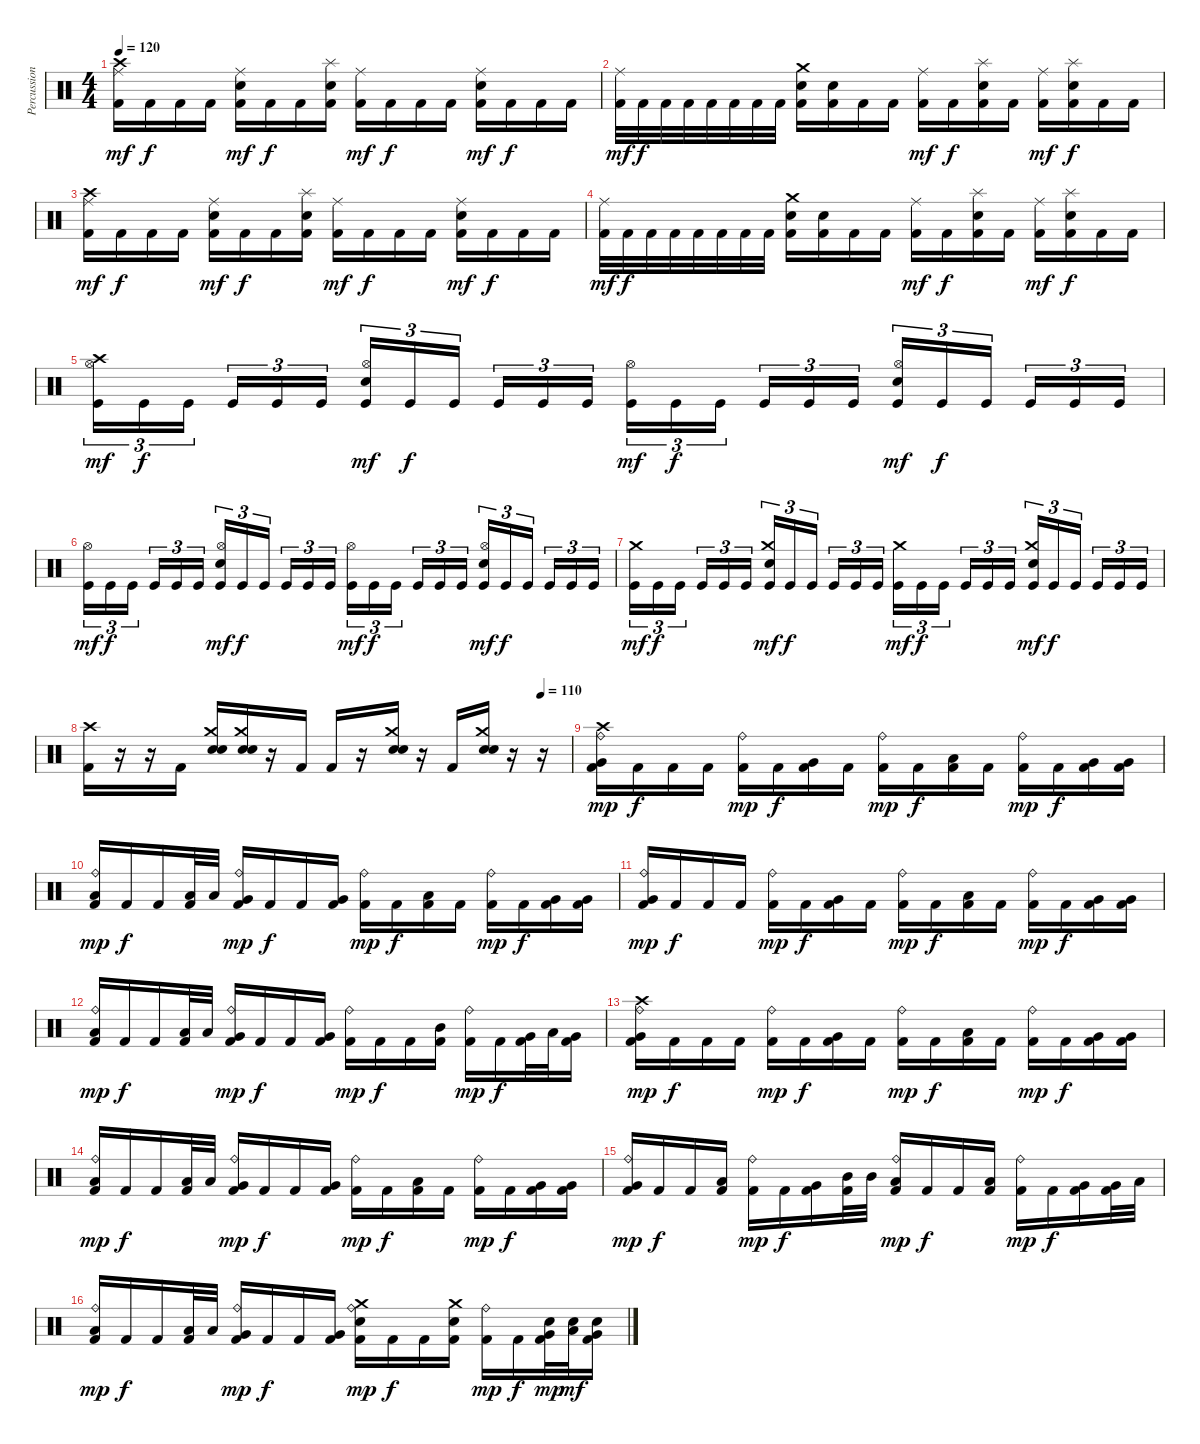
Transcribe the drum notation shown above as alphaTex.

\track ("Percussion" "Percussion") {instrument percussion}
\staff {score}
\articulation defaults
\ts (4 4)
\tempo 120
\clef neutral
\ks c
("Ride (middle)" "Crash high (hit)" "Kick (hit) 2").16{dy mf} "Kick (hit) 2".16{dy f} "Kick (hit) 2".16 "Kick (hit) 2".16 ("Ride (middle)" "Electric Snare (hit)" "Kick (hit) 2").16{dy mf} "Kick (hit) 2".16{dy f} "Kick (hit) 2".16 ("Splash (hit)" "Electric Snare (hit)" "Kick (hit) 2").16 ("Ride (middle)" "Kick (hit) 2").16{dy mf} "Kick (hit) 2".16{dy f} "Kick (hit) 2".16 "Kick (hit) 2".16 ("Ride (middle)" "Electric Snare (hit)" "Kick (hit) 2").16{dy mf} "Kick (hit) 2".16{dy f} "Kick (hit) 2".16 "Kick (hit) 2".16 |
("Ride (middle)" "Kick (hit) 2").32{dy mf} "Kick (hit) 2".32{dy f} "Kick (hit) 2".32 "Kick (hit) 2".32 "Kick (hit) 2".32 "Kick (hit) 2".32 "Kick (hit) 2".32 "Kick (hit) 2".32 ("Crash medium (hit)" "Electric Snare (hit)" "Kick (hit) 2").16 ("Electric Snare (hit)" "Kick (hit) 2").16 "Kick (hit) 2".16 "Kick (hit) 2".16 ("Ride (middle)" "Kick (hit) 2").16{dy mf} "Kick (hit) 2".16{dy f} ("Splash (hit)" "Electric Snare (hit)" "Kick (hit) 2").16 "Kick (hit) 2".16 ("Ride (middle)" "Kick (hit) 2").16{dy mf} ("Splash (hit)" "Electric Snare (hit)" "Kick (hit) 2").16{dy f} "Kick (hit) 2".16 "Kick (hit) 2".16 |
("Ride (middle)" "Crash high (hit)" "Kick (hit) 2").16{dy mf} "Kick (hit) 2".16{dy f} "Kick (hit) 2".16 "Kick (hit) 2".16 ("Ride (middle)" "Electric Snare (hit)" "Kick (hit) 2").16{dy mf} "Kick (hit) 2".16{dy f} "Kick (hit) 2".16 ("Splash (hit)" "Electric Snare (hit)" "Kick (hit) 2").16 ("Ride (middle)" "Kick (hit) 2").16{dy mf} "Kick (hit) 2".16{dy f} "Kick (hit) 2".16 "Kick (hit) 2".16 ("Ride (middle)" "Electric Snare (hit)" "Kick (hit) 2").16{dy mf} "Kick (hit) 2".16{dy f} "Kick (hit) 2".16 "Kick (hit) 2".16 |
("Ride (middle)" "Kick (hit) 2").32{dy mf} "Kick (hit) 2".32{dy f} "Kick (hit) 2".32 "Kick (hit) 2".32 "Kick (hit) 2".32 "Kick (hit) 2".32 "Kick (hit) 2".32 "Kick (hit) 2".32 ("Crash medium (hit)" "Electric Snare (hit)" "Kick (hit) 2").16 ("Electric Snare (hit)" "Kick (hit) 2").16 "Kick (hit) 2".16 "Kick (hit) 2".16 ("Ride (middle)" "Kick (hit) 2").16{dy mf} "Kick (hit) 2".16{dy f} ("Splash (hit)" "Electric Snare (hit)" "Kick (hit) 2").16 "Kick (hit) 2".16 ("Ride (middle)" "Kick (hit) 2").16{dy mf} ("Splash (hit)" "Electric Snare (hit)" "Kick (hit) 2").16{dy f} "Kick (hit) 2".16 "Kick (hit) 2".16 |
("Hi-Hat (open)" "Crash high (hit)" "Kick (hit)").16{tu (3 2) dy mf} "Kick (hit)".16{tu (3 2) dy f} "Kick (hit)".16{tu (3 2)} "Kick (hit)".16{tu (3 2)} "Kick (hit)".16{tu (3 2)} "Kick (hit)".16{tu (3 2)} ("Hi-Hat (open)" "Electric Snare (hit)" "Kick (hit)").16{tu (3 2) dy mf} "Kick (hit)".16{tu (3 2) dy f} "Kick (hit)".16{tu (3 2)} "Kick (hit)".16{tu (3 2)} "Kick (hit)".16{tu (3 2)} "Kick (hit)".16{tu (3 2)} ("Hi-Hat (open)" "Kick (hit)").16{tu (3 2) dy mf} "Kick (hit)".16{tu (3 2) dy f} "Kick (hit)".16{tu (3 2)} "Kick (hit)".16{tu (3 2)} "Kick (hit)".16{tu (3 2)} "Kick (hit)".16{tu (3 2)} ("Hi-Hat (open)" "Electric Snare (hit)" "Kick (hit)").16{tu (3 2) dy mf} "Kick (hit)".16{tu (3 2) dy f} "Kick (hit)".16{tu (3 2)} "Kick (hit)".16{tu (3 2)} "Kick (hit)".16{tu (3 2)} "Kick (hit)".16{tu (3 2)} |
("Hi-Hat (open)" "Kick (hit)").16{tu (3 2) dy mf} "Kick (hit)".16{tu (3 2) dy f} "Kick (hit)".16{tu (3 2)} "Kick (hit)".16{tu (3 2)} "Kick (hit)".16{tu (3 2)} "Kick (hit)".16{tu (3 2)} ("Hi-Hat (open)" "Electric Snare (hit)" "Kick (hit)").16{tu (3 2) dy mf} "Kick (hit)".16{tu (3 2) dy f} "Kick (hit)".16{tu (3 2)} "Kick (hit)".16{tu (3 2)} "Kick (hit)".16{tu (3 2)} "Kick (hit)".16{tu (3 2)} ("Hi-Hat (open)" "Kick (hit)").16{tu (3 2) dy mf} "Kick (hit)".16{tu (3 2) dy f} "Kick (hit)".16{tu (3 2)} "Kick (hit)".16{tu (3 2)} "Kick (hit)".16{tu (3 2)} "Kick (hit)".16{tu (3 2)} ("Hi-Hat (open)" "Electric Snare (hit)" "Kick (hit)").16{tu (3 2) dy mf} "Kick (hit)".16{tu (3 2) dy f} "Kick (hit)".16{tu (3 2)} "Kick (hit)".16{tu (3 2)} "Kick (hit)".16{tu (3 2)} "Kick (hit)".16{tu (3 2)} |
("Crash medium (hit)" "Kick (hit)").16{tu (3 2) dy mf} "Kick (hit)".16{tu (3 2) dy f} "Kick (hit)".16{tu (3 2)} "Kick (hit)".16{tu (3 2)} "Kick (hit)".16{tu (3 2)} "Kick (hit)".16{tu (3 2)} ("Crash medium (hit)" "Electric Snare (hit)" "Kick (hit)").16{tu (3 2) dy mf} "Kick (hit)".16{tu (3 2) dy f} "Kick (hit)".16{tu (3 2)} "Kick (hit)".16{tu (3 2)} "Kick (hit)".16{tu (3 2)} "Kick (hit)".16{tu (3 2)} ("Crash medium (hit)" "Kick (hit)").16{tu (3 2) dy mf} "Kick (hit)".16{tu (3 2) dy f} "Kick (hit)".16{tu (3 2)} "Kick (hit)".16{tu (3 2)} "Kick (hit)".16{tu (3 2)} "Kick (hit)".16{tu (3 2)} ("Crash medium (hit)" "Electric Snare (hit)" "Kick (hit)").16{tu (3 2) dy mf} "Kick (hit)".16{tu (3 2) dy f} "Kick (hit)".16{tu (3 2)} "Kick (hit)".16{tu (3 2)} "Kick (hit)".16{tu (3 2)} "Kick (hit)".16{tu (3 2)} |
\tempo (110 0.9375)
("Crash high (hit)" "Kick (hit) 2").16 r.16 r.16 "Kick (hit) 2".16 ("Crash medium (hit)" "Snare (hit) 2" "Electric Snare (hit)").16 ("Crash medium (hit)" "Snare (hit) 2" "Electric Snare (hit)").16 r.16 "Kick (hit) 2".16 "Kick (hit) 2".16 r.16 ("Crash medium (hit)" "Snare (hit) 2" "Electric Snare (hit)").16 r.16 "Kick (hit) 2".16 ("Crash medium (hit)" "Snare (hit) 2" "Electric Snare (hit)").16 r.16 r.16 |
("Ride (bell)" "Crash high (hit)" "Very Low Tom (hit)" "Kick (hit) 2").16{dy mp} "Kick (hit) 2".16{dy f} "Kick (hit) 2".16 "Kick (hit) 2".16 ("Ride (bell)" "Kick (hit) 2").16{dy mp} "Kick (hit) 2".16{dy f} ("Very Low Tom (hit)" "Kick (hit) 2").16 "Kick (hit) 2".16 ("Ride (bell)" "Kick (hit) 2").16{dy mp} "Kick (hit) 2".16{dy f} ("Low Tom (hit)" "Kick (hit) 2").16 "Kick (hit) 2".16 ("Ride (bell)" "Kick (hit) 2").16{dy mp} "Kick (hit) 2".16{dy f} ("Very Low Tom (hit)" "Kick (hit) 2").16 ("Very Low Tom (hit)" "Kick (hit) 2").16 |
("Ride (bell)" "Low Floor Tom (hit)" "Kick (hit) 2").16{dy mp} "Kick (hit) 2".16{dy f} "Kick (hit) 2".16 ("Low Tom (hit)" "Kick (hit) 2").32 "Low Tom (hit)".32 ("Ride (bell)" "Very Low Tom (hit)" "Kick (hit) 2").16{dy mp} "Kick (hit) 2".16{dy f} "Kick (hit) 2".16 ("Very Low Tom (hit)" "Kick (hit) 2").16 ("Ride (bell)" "Kick (hit) 2").16{dy mp} "Kick (hit) 2".16{dy f} ("Low Tom (hit)" "Kick (hit) 2").16 "Kick (hit) 2".16 ("Ride (bell)" "Kick (hit) 2").16{dy mp} "Kick (hit) 2".16{dy f} ("Very Low Tom (hit)" "Kick (hit) 2").16 ("Very Low Tom (hit)" "Kick (hit) 2").16 |
("Ride (bell)" "Very Low Tom (hit)" "Kick (hit) 2").16{dy mp} "Kick (hit) 2".16{dy f} "Kick (hit) 2".16 "Kick (hit) 2".16 ("Ride (bell)" "Kick (hit) 2").16{dy mp} "Kick (hit) 2".16{dy f} ("Very Low Tom (hit)" "Kick (hit) 2").16 "Kick (hit) 2".16 ("Ride (bell)" "Kick (hit) 2").16{dy mp} "Kick (hit) 2".16{dy f} ("Low Tom (hit)" "Kick (hit) 2").16 "Kick (hit) 2".16 ("Ride (bell)" "Kick (hit) 2").16{dy mp} "Kick (hit) 2".16{dy f} ("Very Low Tom (hit)" "Kick (hit) 2").16 ("Very Low Tom (hit)" "Kick (hit) 2").16 |
("Ride (bell)" "Low Floor Tom (hit)" "Kick (hit) 2").16{dy mp} "Kick (hit) 2".16{dy f} "Kick (hit) 2".16 ("Low Tom (hit)" "Kick (hit) 2").32 "Low Tom (hit)".32 ("Ride (bell)" "Very Low Tom (hit)" "Kick (hit) 2").16{dy mp} "Kick (hit) 2".16{dy f} "Kick (hit) 2".16 ("Very Low Tom (hit)" "Kick (hit) 2").16 ("Ride (bell)" "Kick (hit) 2").16{dy mp} "Kick (hit) 2".16{dy f} "Kick (hit) 2".16 ("Mid Tom (hit)" "Kick (hit) 2").16 ("Ride (bell)" "Kick (hit) 2").16{dy mp} "Kick (hit) 2".16{dy f} ("Very Low Tom (hit)" "Kick (hit) 2").32 "Low Floor Tom (hit)".32 ("Very Low Tom (hit)" "Kick (hit) 2").16 |
("Ride (bell)" "Crash high (hit)" "Very Low Tom (hit)" "Kick (hit) 2").16{dy mp} "Kick (hit) 2".16{dy f} "Kick (hit) 2".16 "Kick (hit) 2".16 ("Ride (bell)" "Kick (hit) 2").16{dy mp} "Kick (hit) 2".16{dy f} ("Very Low Tom (hit)" "Kick (hit) 2").16 "Kick (hit) 2".16 ("Ride (bell)" "Kick (hit) 2").16{dy mp} "Kick (hit) 2".16{dy f} ("Low Tom (hit)" "Kick (hit) 2").16 "Kick (hit) 2".16 ("Ride (bell)" "Kick (hit) 2").16{dy mp} "Kick (hit) 2".16{dy f} ("Very Low Tom (hit)" "Kick (hit) 2").16 ("Very Low Tom (hit)" "Kick (hit) 2").16 |
("Ride (bell)" "Low Floor Tom (hit)" "Kick (hit) 2").16{dy mp} "Kick (hit) 2".16{dy f} "Kick (hit) 2".16 ("Low Tom (hit)" "Kick (hit) 2").32 "Low Tom (hit)".32 ("Ride (bell)" "Very Low Tom (hit)" "Kick (hit) 2").16{dy mp} "Kick (hit) 2".16{dy f} "Kick (hit) 2".16 ("Very Low Tom (hit)" "Kick (hit) 2").16 ("Ride (bell)" "Kick (hit) 2").16{dy mp} "Kick (hit) 2".16{dy f} ("Low Tom (hit)" "Kick (hit) 2").16 "Kick (hit) 2".16 ("Ride (bell)" "Kick (hit) 2").16{dy mp} "Kick (hit) 2".16{dy f} ("Very Low Tom (hit)" "Kick (hit) 2").16 ("Very Low Tom (hit)" "Kick (hit) 2").16 |
("Ride (bell)" "Very Low Tom (hit)" "Kick (hit) 2").16{dy mp} "Kick (hit) 2".16{dy f} "Kick (hit) 2".16 ("Low Tom (hit)" "Kick (hit) 2").16 ("Ride (bell)" "Kick (hit) 2").16{dy mp} "Kick (hit) 2".16{dy f} ("Very Low Tom (hit)" "Kick (hit) 2").16 ("Mid Tom (hit)" "Kick (hit) 2").32 "Mid Tom (hit)".32 ("Ride (bell)" "Low Tom (hit)" "Kick (hit) 2").16{dy mp} "Kick (hit) 2".16{dy f} "Kick (hit) 2".16 ("Low Floor Tom (hit)" "Kick (hit) 2").16 ("Ride (bell)" "Kick (hit) 2").16{dy mp} "Kick (hit) 2".16{dy f} ("Very Low Tom (hit)" "Kick (hit) 2").16 ("Very Low Tom (hit)" "Kick (hit) 2").32 "Low Tom (hit)".32 |
("Ride (bell)" "Low Floor Tom (hit)" "Kick (hit) 2").16{dy mp} "Kick (hit) 2".16{dy f} "Kick (hit) 2".16 ("Low Tom (hit)" "Kick (hit) 2").32 "Low Tom (hit)".32 ("Ride (bell)" "Very Low Tom (hit)" "Kick (hit) 2").16{dy mp} "Kick (hit) 2".16{dy f} "Kick (hit) 2".16 ("Very Low Tom (hit)" "Kick (hit) 2").16 ("Ride (bell)" "Crash medium (hit)" "Electric Snare (hit)" "Kick (hit) 2").16{dy mp} "Kick (hit) 2".16{dy f} "Kick (hit) 2".16 ("Crash medium (hit)" "Electric Snare (hit)" "Kick (hit) 2").16 ("Ride (bell)" "Kick (hit) 2").16{dy mp} "Kick (hit) 2".16{dy f} ("Very Low Tom (hit)" "Electric Snare (hit)" "Kick (hit) 2").32{dy mp} ("Low Floor Tom (hit)" "Electric Snare (hit)").32{dy mf} ("Very Low Tom (hit)" "Electric Snare (hit)" "Kick (hit) 2").16
